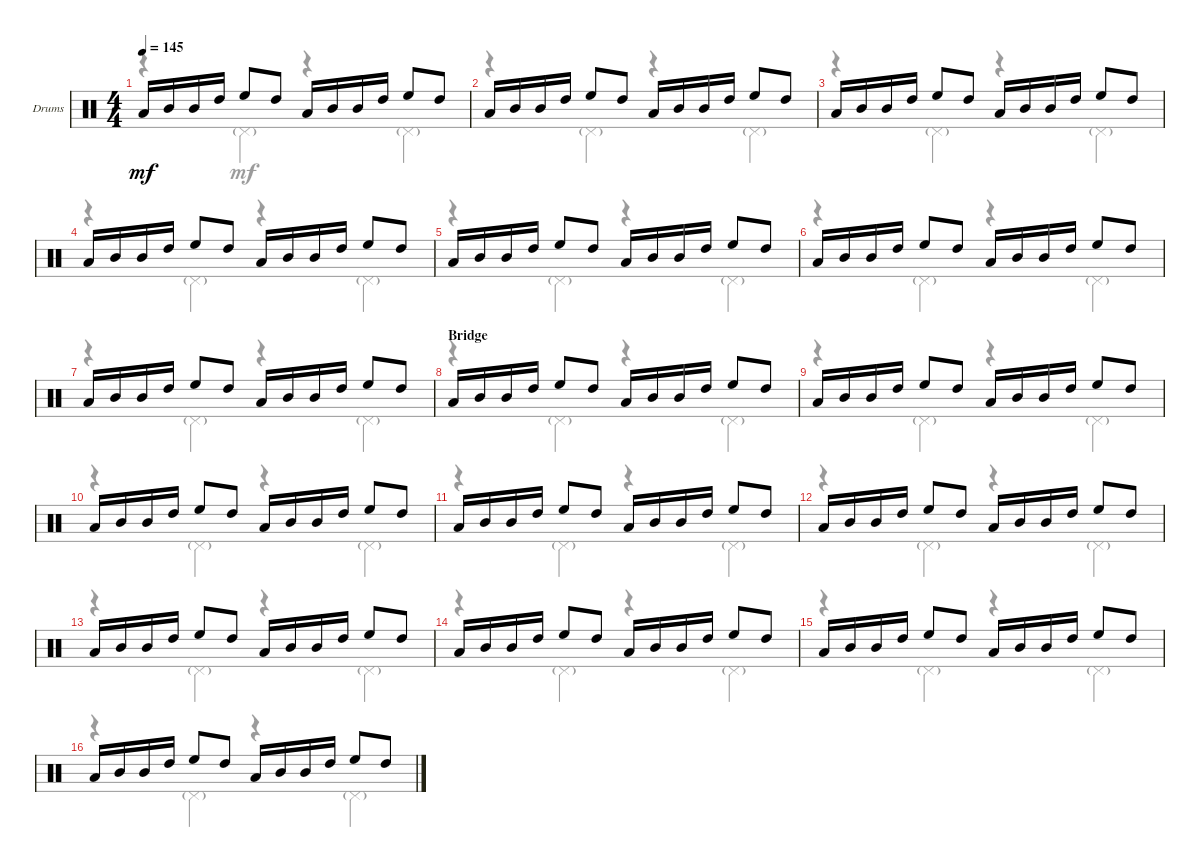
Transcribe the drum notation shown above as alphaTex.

\defaultSystemsLayout 4
\bracketExtendMode groupsimilarinstruments
\firstSystemTrackNameOrientation horizontal
\otherSystemsTrackNameOrientation horizontal
\track ("Drumkit" "Drums") {instrument percussion}
\staff {score}
\articulation defaults
\voice
\ts (4 4)
\tempo 145
\clef neutral
\ks c "Low Tom (hit)".16{dy mf} "Mid Tom (hit)".16 "Mid Tom (hit)".16 "High Tom (hit)".16 "High Floor Tom (hit)".8 "High Tom (hit)".8 "Low Tom (hit)".16 "Mid Tom (hit)".16 "Mid Tom (hit)".16 "High Tom (hit)".16 "High Floor Tom (hit)".8 "High Tom (hit)".8
|
"Low Tom (hit)".16 "Mid Tom (hit)".16 "Mid Tom (hit)".16 "High Tom (hit)".16 "High Floor Tom (hit)".8 "High Tom (hit)".8 "Low Tom (hit)".16 "Mid Tom (hit)".16 "Mid Tom (hit)".16 "High Tom (hit)".16 "High Floor Tom (hit)".8 "High Tom (hit)".8 |
"Low Tom (hit)".16 "Mid Tom (hit)".16 "Mid Tom (hit)".16 "High Tom (hit)".16 "High Floor Tom (hit)".8 "High Tom (hit)".8 "Low Tom (hit)".16 "Mid Tom (hit)".16 "Mid Tom (hit)".16 "High Tom (hit)".16 "High Floor Tom (hit)".8 "High Tom (hit)".8 |
"Low Tom (hit)".16 "Mid Tom (hit)".16 "Mid Tom (hit)".16 "High Tom (hit)".16 "High Floor Tom (hit)".8 "High Tom (hit)".8 "Low Tom (hit)".16 "Mid Tom (hit)".16 "Mid Tom (hit)".16 "High Tom (hit)".16 "High Floor Tom (hit)".8 "High Tom (hit)".8 |
"Low Tom (hit)".16 "Mid Tom (hit)".16 "Mid Tom (hit)".16 "High Tom (hit)".16 "High Floor Tom (hit)".8 "High Tom (hit)".8 "Low Tom (hit)".16 "Mid Tom (hit)".16 "Mid Tom (hit)".16 "High Tom (hit)".16 "High Floor Tom (hit)".8 "High Tom (hit)".8 |
"Low Tom (hit)".16 "Mid Tom (hit)".16 "Mid Tom (hit)".16 "High Tom (hit)".16 "High Floor Tom (hit)".8 "High Tom (hit)".8 "Low Tom (hit)".16 "Mid Tom (hit)".16 "Mid Tom (hit)".16 "High Tom (hit)".16 "High Floor Tom (hit)".8 "High Tom (hit)".8 |
"Low Tom (hit)".16 "Mid Tom (hit)".16 "Mid Tom (hit)".16 "High Tom (hit)".16 "High Floor Tom (hit)".8 "High Tom (hit)".8 "Low Tom (hit)".16 "Mid Tom (hit)".16 "Mid Tom (hit)".16 "High Tom (hit)".16 "High Floor Tom (hit)".8 "High Tom (hit)".8 |
\section ("" "Bridge")
"Low Tom (hit)".16 "Mid Tom (hit)".16 "Mid Tom (hit)".16 "High Tom (hit)".16 "High Floor Tom (hit)".8 "High Tom (hit)".8 "Low Tom (hit)".16 "Mid Tom (hit)".16 "Mid Tom (hit)".16 "High Tom (hit)".16 "High Floor Tom (hit)".8 "High Tom (hit)".8 |
"Low Tom (hit)".16 "Mid Tom (hit)".16 "Mid Tom (hit)".16 "High Tom (hit)".16 "High Floor Tom (hit)".8 "High Tom (hit)".8 "Low Tom (hit)".16 "Mid Tom (hit)".16 "Mid Tom (hit)".16 "High Tom (hit)".16 "High Floor Tom (hit)".8 "High Tom (hit)".8 |
"Low Tom (hit)".16 "Mid Tom (hit)".16 "Mid Tom (hit)".16 "High Tom (hit)".16 "High Floor Tom (hit)".8 "High Tom (hit)".8 "Low Tom (hit)".16 "Mid Tom (hit)".16 "Mid Tom (hit)".16 "High Tom (hit)".16 "High Floor Tom (hit)".8 "High Tom (hit)".8 |
"Low Tom (hit)".16 "Mid Tom (hit)".16 "Mid Tom (hit)".16 "High Tom (hit)".16 "High Floor Tom (hit)".8 "High Tom (hit)".8 "Low Tom (hit)".16 "Mid Tom (hit)".16 "Mid Tom (hit)".16 "High Tom (hit)".16 "High Floor Tom (hit)".8 "High Tom (hit)".8 |
"Low Tom (hit)".16 "Mid Tom (hit)".16 "Mid Tom (hit)".16 "High Tom (hit)".16 "High Floor Tom (hit)".8 "High Tom (hit)".8 "Low Tom (hit)".16 "Mid Tom (hit)".16 "Mid Tom (hit)".16 "High Tom (hit)".16 "High Floor Tom (hit)".8 "High Tom (hit)".8 |
"Low Tom (hit)".16 "Mid Tom (hit)".16 "Mid Tom (hit)".16 "High Tom (hit)".16 "High Floor Tom (hit)".8 "High Tom (hit)".8 "Low Tom (hit)".16 "Mid Tom (hit)".16 "Mid Tom (hit)".16 "High Tom (hit)".16 "High Floor Tom (hit)".8 "High Tom (hit)".8 |
"Low Tom (hit)".16 "Mid Tom (hit)".16 "Mid Tom (hit)".16 "High Tom (hit)".16 "High Floor Tom (hit)".8 "High Tom (hit)".8 "Low Tom (hit)".16 "Mid Tom (hit)".16 "Mid Tom (hit)".16 "High Tom (hit)".16 "High Floor Tom (hit)".8 "High Tom (hit)".8 |
"Low Tom (hit)".16 "Mid Tom (hit)".16 "Mid Tom (hit)".16 "High Tom (hit)".16 "High Floor Tom (hit)".8 "High Tom (hit)".8 "Low Tom (hit)".16 "Mid Tom (hit)".16 "Mid Tom (hit)".16 "High Tom (hit)".16 "High Floor Tom (hit)".8 "High Tom (hit)".8 |
"Low Tom (hit)".16 "Mid Tom (hit)".16 "Mid Tom (hit)".16 "High Tom (hit)".16 "High Floor Tom (hit)".8 "High Tom (hit)".8 "Low Tom (hit)".16 "Mid Tom (hit)".16 "Mid Tom (hit)".16 "High Tom (hit)".16 "High Floor Tom (hit)".8 "High Tom (hit)".8
\voice
\clef neutral
\ottava regular
\simile none
\ks c
r.4{dy mf} "Pedal Hi-Hat (hit)"{g}.4 r.4 "Pedal Hi-Hat (hit)"{g}.4 |
r.4 "Pedal Hi-Hat (hit)"{g}.4 r.4 "Pedal Hi-Hat (hit)"{g}.4 |
r.4 "Pedal Hi-Hat (hit)"{g}.4 r.4 "Pedal Hi-Hat (hit)"{g}.4 |
r.4 "Pedal Hi-Hat (hit)"{g}.4 r.4 "Pedal Hi-Hat (hit)"{g}.4 |
r.4 "Pedal Hi-Hat (hit)"{g}.4 r.4 "Pedal Hi-Hat (hit)"{g}.4 |
r.4 "Pedal Hi-Hat (hit)"{g}.4 r.4 "Pedal Hi-Hat (hit)"{g}.4 |
r.4 "Pedal Hi-Hat (hit)"{g}.4 r.4 "Pedal Hi-Hat (hit)"{g}.4 |
r.4 "Pedal Hi-Hat (hit)"{g}.4 r.4 "Pedal Hi-Hat (hit)"{g}.4 |
r.4 "Pedal Hi-Hat (hit)"{g}.4 r.4 "Pedal Hi-Hat (hit)"{g}.4 |
r.4 "Pedal Hi-Hat (hit)"{g}.4 r.4 "Pedal Hi-Hat (hit)"{g}.4 |
r.4 "Pedal Hi-Hat (hit)"{g}.4 r.4 "Pedal Hi-Hat (hit)"{g}.4 |
r.4 "Pedal Hi-Hat (hit)"{g}.4 r.4 "Pedal Hi-Hat (hit)"{g}.4 |
r.4 "Pedal Hi-Hat (hit)"{g}.4 r.4 "Pedal Hi-Hat (hit)"{g}.4 |
r.4 "Pedal Hi-Hat (hit)"{g}.4 r.4 "Pedal Hi-Hat (hit)"{g}.4 |
r.4 "Pedal Hi-Hat (hit)"{g}.4 r.4 "Pedal Hi-Hat (hit)"{g}.4 |
r.4 "Pedal Hi-Hat (hit)"{g}.4 r.4 "Pedal Hi-Hat (hit)"{g}.4
